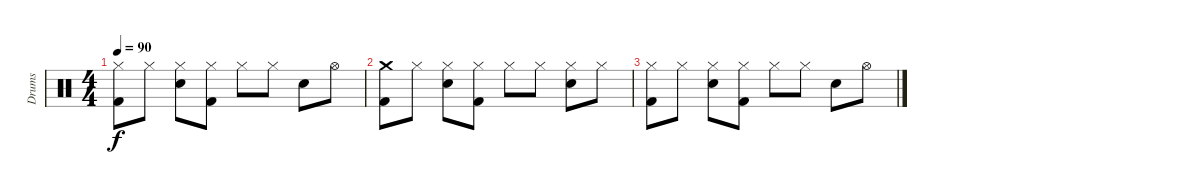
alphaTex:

\track ("Drums" "Drums") {instrument percussion}
\staff {score}
\articulation defaults
\ts (4 4)
\tempo 90
\clef neutral
\ks c
("Hi-Hat (closed)" "Kick (hit) 2").8{dy f volume 0} "Hi-Hat (closed)".8 ("Hi-Hat (closed)" "Snare (hit) 2").8 ("Hi-Hat (closed)" "Kick (hit) 2").8 "Hi-Hat (closed)".8 "Hi-Hat (closed)".8 "Snare (hit) 2".8 "Hi-Hat (open)".8 |
("Crash medium (hit)" "Kick (hit) 2").8 "Hi-Hat (closed)".8 ("Hi-Hat (closed)" "Snare (hit) 2").8 ("Hi-Hat (closed)" "Kick (hit) 2").8 "Hi-Hat (closed)".8 "Hi-Hat (closed)".8 ("Hi-Hat (closed)" "Snare (hit) 2").8 "Hi-Hat (closed)".8 |
("Hi-Hat (closed)" "Kick (hit) 2").8 "Hi-Hat (closed)".8 ("Hi-Hat (closed)" "Snare (hit) 2").8 ("Hi-Hat (closed)" "Kick (hit) 2").8 "Hi-Hat (closed)".8 "Hi-Hat (closed)".8 "Snare (hit) 2".8 "Hi-Hat (open)".8
